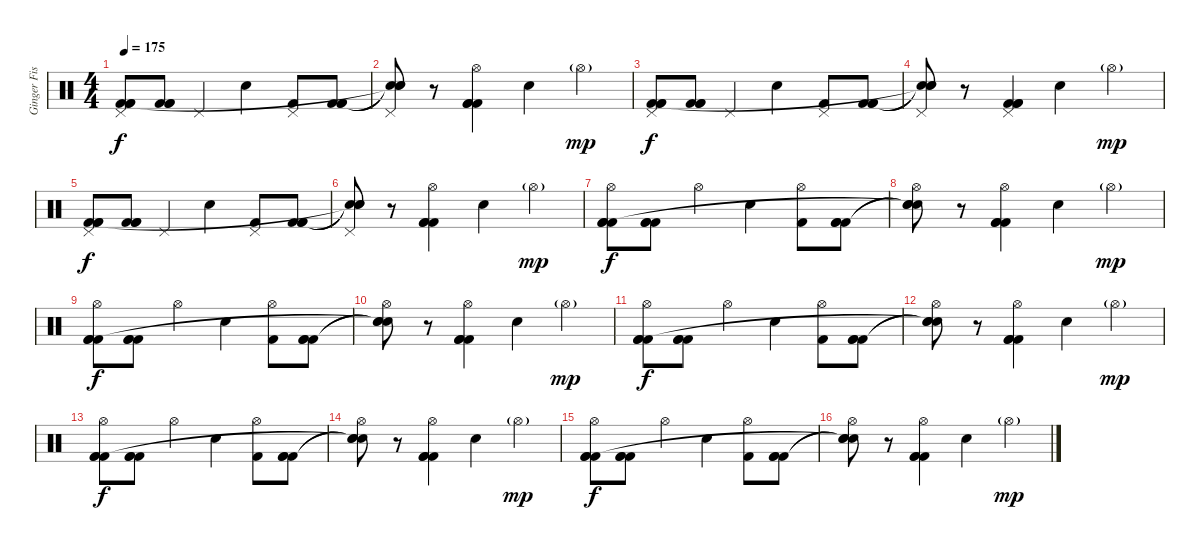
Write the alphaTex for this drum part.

\track ("Ginger Fish" "Ginger Fis") {instrument percussion}
\staff {score}
\articulation defaults
\ts (4 4)
\tempo 175
\clef neutral
\ks c
("Pedal Hi-Hat (hit)" "Kick (hit) 2" "Kick (hit) 2" "Kick (hit) 2").8{dy f} ("Kick (hit) 2" "Kick (hit) 2" "Kick (hit) 2").8 "Pedal Hi-Hat (hit)".4 "Snare (hit) 2".4 ("Pedal Hi-Hat (hit)" "Kick (hit) 2").8 ("Kick (hit) 2" "Kick (hit) 2" "Kick (hit) 2").8 |
("Pedal Hi-Hat (hit)" "Snare (hit)"{t} "Snare (hit)"{t} "Snare (hit)"{t}).8 r.8 ("Hi-Hat (open)" "Kick (hit) 2" "Kick (hit) 2" "Kick (hit) 2").4 "Snare (hit) 2".4 "Hi-Hat (open)"{g}.4{dy mp} |
("Pedal Hi-Hat (hit)" "Kick (hit) 2" "Kick (hit) 2" "Kick (hit) 2").8{dy f} ("Kick (hit) 2" "Kick (hit) 2" "Kick (hit) 2").8 "Pedal Hi-Hat (hit)".4 "Snare (hit) 2".4 ("Pedal Hi-Hat (hit)" "Kick (hit) 2").8 ("Kick (hit) 2" "Kick (hit) 2" "Kick (hit) 2").8 |
("Pedal Hi-Hat (hit)" "Snare (hit)"{t} "Snare (hit)"{t} "Snare (hit)"{t}).8 r.8 ("Pedal Hi-Hat (hit)" "Kick (hit) 2" "Kick (hit) 2" "Kick (hit) 2").4 "Snare (hit) 2".4 "Hi-Hat (open)"{g}.4{dy mp} |
("Pedal Hi-Hat (hit)" "Kick (hit) 2" "Kick (hit) 2" "Kick (hit) 2").8{dy f} ("Kick (hit) 2" "Kick (hit) 2" "Kick (hit) 2").8 "Pedal Hi-Hat (hit)".4 "Snare (hit) 2".4 ("Pedal Hi-Hat (hit)" "Kick (hit) 2").8 ("Kick (hit) 2" "Kick (hit) 2" "Kick (hit) 2").8 |
("Pedal Hi-Hat (hit)" "Snare (hit)"{t} "Snare (hit)"{t} "Snare (hit)"{t}).8 r.8 ("Hi-Hat (open)" "Kick (hit) 2" "Kick (hit) 2" "Kick (hit) 2").4 "Snare (hit) 2".4 "Hi-Hat (open)"{g}.4{dy mp} |
("Hi-Hat (open)" "Kick (hit) 2" "Kick (hit) 2" "Kick (hit) 2").8{dy f} ("Kick (hit) 2" "Kick (hit) 2" "Kick (hit) 2").8 "Hi-Hat (open)".4 "Snare (hit) 2".4 ("Hi-Hat (open)" "Kick (hit) 2").8 ("Kick (hit) 2" "Kick (hit) 2" "Kick (hit) 2").8 |
("Hi-Hat (open)" "Snare (hit)"{t} "Snare (hit)"{t} "Snare (hit)"{t}).8 r.8 ("Hi-Hat (open)" "Kick (hit) 2" "Kick (hit) 2" "Kick (hit) 2").4 "Snare (hit) 2".4 "Hi-Hat (open)"{g}.4{dy mp} |
("Hi-Hat (open)" "Kick (hit) 2" "Kick (hit) 2" "Kick (hit) 2").8{dy f} ("Kick (hit) 2" "Kick (hit) 2" "Kick (hit) 2").8 "Hi-Hat (open)".4 "Snare (hit) 2".4 ("Hi-Hat (open)" "Kick (hit) 2").8 ("Kick (hit) 2" "Kick (hit) 2" "Kick (hit) 2").8 |
("Hi-Hat (open)" "Snare (hit)"{t} "Snare (hit)"{t} "Snare (hit)"{t}).8 r.8 ("Hi-Hat (open)" "Kick (hit) 2" "Kick (hit) 2" "Kick (hit) 2").4 "Snare (hit) 2".4 "Hi-Hat (open)"{g}.4{dy mp} |
("Hi-Hat (open)" "Kick (hit) 2" "Kick (hit) 2" "Kick (hit) 2").8{dy f} ("Kick (hit) 2" "Kick (hit) 2" "Kick (hit) 2").8 "Hi-Hat (open)".4 "Snare (hit) 2".4 ("Hi-Hat (open)" "Kick (hit) 2").8 ("Kick (hit) 2" "Kick (hit) 2" "Kick (hit) 2").8 |
("Hi-Hat (open)" "Snare (hit)"{t} "Snare (hit)"{t} "Snare (hit)"{t}).8 r.8 ("Hi-Hat (open)" "Kick (hit) 2" "Kick (hit) 2" "Kick (hit) 2").4 "Snare (hit) 2".4 "Hi-Hat (open)"{g}.4{dy mp} |
("Hi-Hat (open)" "Kick (hit) 2" "Kick (hit) 2" "Kick (hit) 2").8{dy f} ("Kick (hit) 2" "Kick (hit) 2" "Kick (hit) 2").8 "Hi-Hat (open)".4 "Snare (hit) 2".4 ("Hi-Hat (open)" "Kick (hit) 2").8 ("Kick (hit) 2" "Kick (hit) 2" "Kick (hit) 2").8 |
("Hi-Hat (open)" "Snare (hit)"{t} "Snare (hit)"{t} "Snare (hit)"{t}).8 r.8 ("Hi-Hat (open)" "Kick (hit) 2" "Kick (hit) 2" "Kick (hit) 2").4 "Snare (hit) 2".4 "Hi-Hat (open)"{g}.4{dy mp} |
("Hi-Hat (open)" "Kick (hit) 2" "Kick (hit) 2" "Kick (hit) 2").8{dy f} ("Kick (hit) 2" "Kick (hit) 2" "Kick (hit) 2").8 "Hi-Hat (open)".4 "Snare (hit) 2".4 ("Hi-Hat (open)" "Kick (hit) 2").8 ("Kick (hit) 2" "Kick (hit) 2" "Kick (hit) 2").8 |
("Hi-Hat (open)" "Snare (hit)"{t} "Snare (hit)"{t} "Snare (hit)"{t}).8 r.8 ("Hi-Hat (open)" "Kick (hit) 2" "Kick (hit) 2" "Kick (hit) 2").4 "Snare (hit) 2".4 "Hi-Hat (open)"{g}.4{dy mp}
